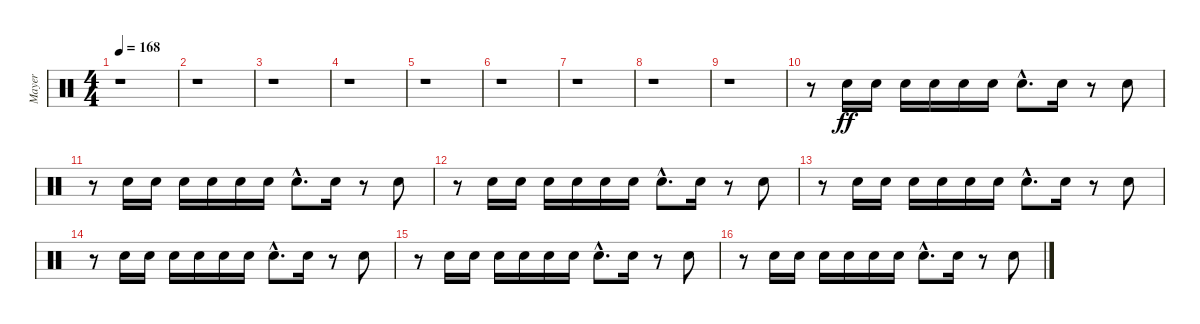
\track ("Mayer" "Mayer") {instrument percussion}
\staff {score}
\articulation defaults
\ts (4 4)
\tempo 168
\clef neutral
\ks c
r.1{dy f} |
r.1 |
r.1 |
r.1 |
r.1 |
r.1 |
r.1 |
r.1 |
r.1 |
r.8 "Electric Snare (hit)".16{dy ff} "Electric Snare (hit)".16 "Electric Snare (hit)".16 "Electric Snare (hit)".16 "Electric Snare (hit)".16 "Electric Snare (hit)".16 "Electric Snare (hit)"{hac}.8{d} "Electric Snare (hit)".16 r.8 "Electric Snare (hit)".8 |
r.8 "Electric Snare (hit)".16 "Electric Snare (hit)".16 "Electric Snare (hit)".16 "Electric Snare (hit)".16 "Electric Snare (hit)".16 "Electric Snare (hit)".16 "Electric Snare (hit)"{hac}.8{d} "Electric Snare (hit)".16 r.8 "Electric Snare (hit)".8 |
r.8 "Electric Snare (hit)".16 "Electric Snare (hit)".16 "Electric Snare (hit)".16 "Electric Snare (hit)".16 "Electric Snare (hit)".16 "Electric Snare (hit)".16 "Electric Snare (hit)"{hac}.8{d} "Electric Snare (hit)".16 r.8 "Electric Snare (hit)".8 |
r.8 "Electric Snare (hit)".16 "Electric Snare (hit)".16 "Electric Snare (hit)".16 "Electric Snare (hit)".16 "Electric Snare (hit)".16 "Electric Snare (hit)".16 "Electric Snare (hit)"{hac}.8{d} "Electric Snare (hit)".16 r.8 "Electric Snare (hit)".8 |
r.8 "Electric Snare (hit)".16 "Electric Snare (hit)".16 "Electric Snare (hit)".16 "Electric Snare (hit)".16 "Electric Snare (hit)".16 "Electric Snare (hit)".16 "Electric Snare (hit)"{hac}.8{d} "Electric Snare (hit)".16 r.8 "Electric Snare (hit)".8 |
r.8 "Electric Snare (hit)".16 "Electric Snare (hit)".16 "Electric Snare (hit)".16 "Electric Snare (hit)".16 "Electric Snare (hit)".16 "Electric Snare (hit)".16 "Electric Snare (hit)"{hac}.8{d} "Electric Snare (hit)".16 r.8 "Electric Snare (hit)".8 |
r.8 "Electric Snare (hit)".16 "Electric Snare (hit)".16 "Electric Snare (hit)".16 "Electric Snare (hit)".16 "Electric Snare (hit)".16 "Electric Snare (hit)".16 "Electric Snare (hit)"{hac}.8{d} "Electric Snare (hit)".16 r.8 "Electric Snare (hit)".8
